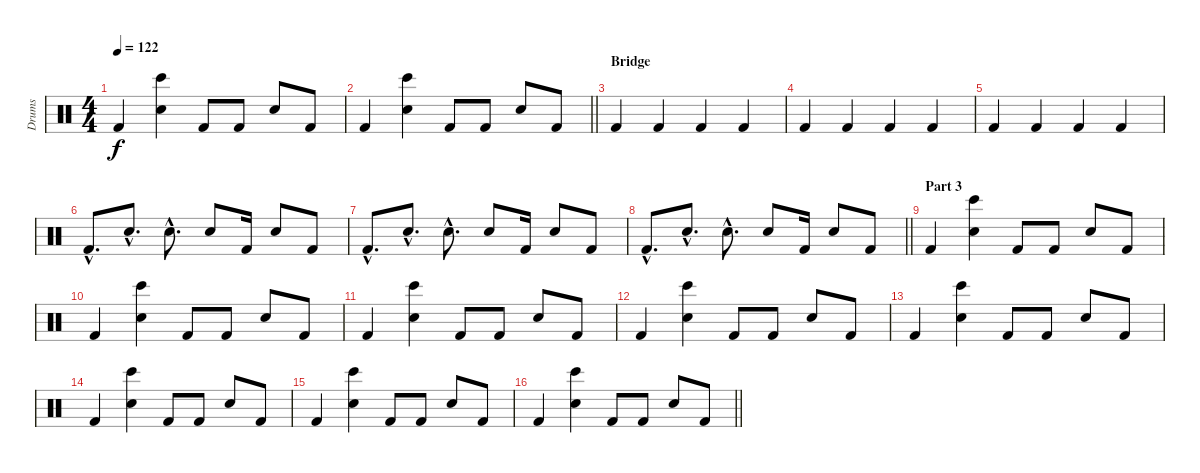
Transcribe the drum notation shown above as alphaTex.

\track ("Drums" "Drums") {instrument percussion}
\staff {score}
\articulation defaults
\ts (4 4)
\tempo 122
\clef neutral
\ks c "Kick (hit) 2".4{dy f}
("Bongo High (hit)" "Hand Clap (hit)").4 "Kick (hit) 2".8 "Kick (hit) 2".8 "Snare (hit) 2".8 "Kick (hit) 2".8 |
\barLineRight lightlight "Kick (hit) 2".4
("Bongo High (hit)" "Hand Clap (hit)").4 "Kick (hit) 2".8 "Kick (hit) 2".8 "Snare (hit) 2".8 "Kick (hit) 2".8 |
\section ("" "Bridge")
"Kick (hit) 2".4 "Kick (hit) 2".4 "Kick (hit) 2".4 "Kick (hit) 2".4 |
"Kick (hit) 2".4 "Kick (hit) 2".4 "Kick (hit) 2".4 "Kick (hit) 2".4 |
"Kick (hit) 2".4 "Kick (hit) 2".4 "Kick (hit) 2".4 "Kick (hit) 2".4 |
"Kick (hit) 2"{hac}.8{d} "Snare (hit) 2"{hac}.8{d} "Snare (hit) 2"{hac}.8{d} "Snare (hit) 2".8 "Kick (hit) 2".16 "Snare (hit) 2".8 "Kick (hit) 2".8 |
"Kick (hit) 2"{hac}.8{d} "Snare (hit) 2"{hac}.8{d} "Snare (hit) 2"{hac}.8{d} "Snare (hit) 2".8 "Kick (hit) 2".16 "Snare (hit) 2".8 "Kick (hit) 2".8 |
\barLineRight lightlight "Kick (hit) 2"{hac}.8{d} "Snare (hit) 2"{hac}.8{d} "Snare (hit) 2"{hac}.8{d} "Snare (hit) 2".8 "Kick (hit) 2".16 "Snare (hit) 2".8 "Kick (hit) 2".8
|
\section ("" "Part 3")
"Kick (hit) 2".4 ("Bongo High (hit)" "Hand Clap (hit)").4 "Kick (hit) 2".8 "Kick (hit) 2".8 "Snare (hit) 2".8 "Kick (hit) 2".8 |
"Kick (hit) 2".4 ("Bongo High (hit)" "Hand Clap (hit)").4 "Kick (hit) 2".8 "Kick (hit) 2".8 "Snare (hit) 2".8 "Kick (hit) 2".8 |
"Kick (hit) 2".4 ("Bongo High (hit)" "Hand Clap (hit)").4 "Kick (hit) 2".8 "Kick (hit) 2".8 "Snare (hit) 2".8 "Kick (hit) 2".8 |
"Kick (hit) 2".4 ("Bongo High (hit)" "Hand Clap (hit)").4 "Kick (hit) 2".8 "Kick (hit) 2".8 "Snare (hit) 2".8 "Kick (hit) 2".8 |
"Kick (hit) 2".4 ("Bongo High (hit)" "Hand Clap (hit)").4 "Kick (hit) 2".8 "Kick (hit) 2".8 "Snare (hit) 2".8 "Kick (hit) 2".8 |
"Kick (hit) 2".4 ("Bongo High (hit)" "Hand Clap (hit)").4 "Kick (hit) 2".8 "Kick (hit) 2".8 "Snare (hit) 2".8 "Kick (hit) 2".8 |
"Kick (hit) 2".4 ("Bongo High (hit)" "Hand Clap (hit)").4 "Kick (hit) 2".8 "Kick (hit) 2".8 "Snare (hit) 2".8 "Kick (hit) 2".8 |
\barLineRight lightlight "Kick (hit) 2".4
("Bongo High (hit)" "Hand Clap (hit)").4 "Kick (hit) 2".8 "Kick (hit) 2".8 "Snare (hit) 2".8 "Kick (hit) 2".8
